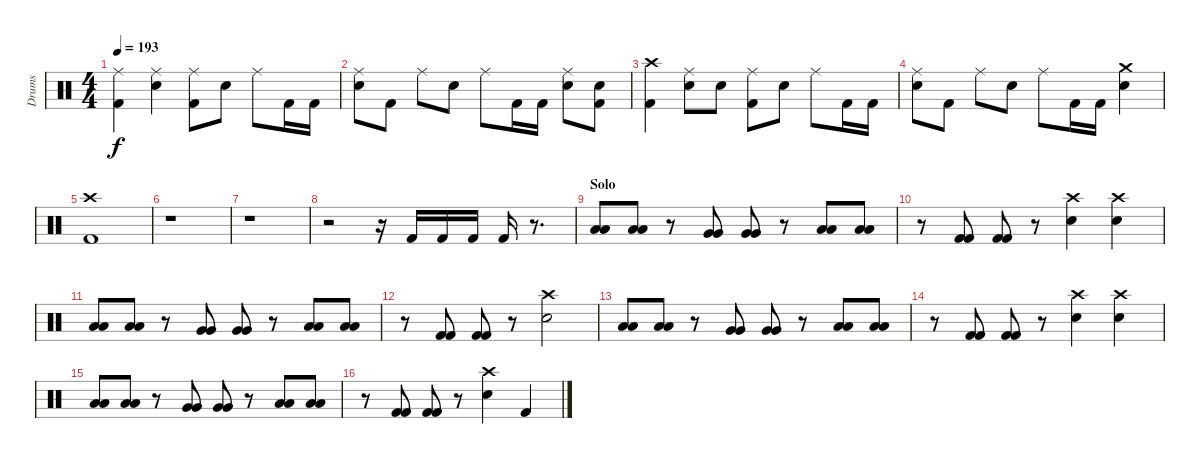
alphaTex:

\track ("Drums" "Drums") {instrument percussion}
\staff {score}
\articulation defaults
\ts (4 4)
\tempo 193
\clef neutral
\ks c
("Ride (middle)" "Kick (hit) 2").4{dy f} ("Ride (middle)" "Snare (hit) 2").4 ("Ride (middle)" "Kick (hit) 2").8 "Snare (hit) 2".8 "Ride (middle)".8 "Kick (hit) 2".16 "Kick (hit) 2".16 |
("Ride (middle)" "Snare (hit) 2").8 "Kick (hit) 2".8 "Ride (middle)".8 "Snare (hit) 2".8 "Ride (middle)".8 "Kick (hit) 2".16 "Kick (hit) 2".16 ("Ride (middle)" "Snare (hit) 2").8 ("Snare (hit) 2" "Kick (hit) 2").8 |
("Crash high (hit)" "Kick (hit) 2").4 ("Ride (middle)" "Snare (hit) 2").8 "Snare (hit) 2".8 ("Ride (middle)" "Kick (hit) 2").8 "Snare (hit) 2".8 "Ride (middle)".8 "Kick (hit) 2".16 "Kick (hit) 2".16 |
("Ride (middle)" "Snare (hit) 2").8 "Kick (hit) 2".8 "Ride (middle)".8 "Snare (hit) 2".8 "Ride (middle)".8 "Kick (hit) 2".16 "Kick (hit) 2".16 ("Crash medium (hit)" "Snare (hit) 2").4 |
("Crash high (hit)" "Kick (hit) 2").1 |
r.1 |
r.1 |
r.2 r.16 "Kick (hit) 2".16 "Kick (hit) 2".16 "Kick (hit) 2".16 "Kick (hit) 2".16 r.8{d} |
\section ("" "Solo")
("Low Tom (hit)" "Low Tom (hit)").8 ("Low Tom (hit)" "Low Tom (hit)").8 r.8 ("Very Low Tom (hit)" "Very Low Tom (hit)").8 ("Very Low Tom (hit)" "Very Low Tom (hit)").8 r.8 ("Low Floor Tom (hit)" "Low Floor Tom (hit)").8 ("Low Floor Tom (hit)" "Low Floor Tom (hit)").8 |
r.8 ("Kick (hit) 2" "Kick (hit) 2").8 ("Kick (hit) 2" "Kick (hit) 2").8 r.8 ("Crash high (hit)" "Snare (hit) 2").4 ("Crash high (hit)" "Snare (hit) 2").4 |
("Low Tom (hit)" "Low Tom (hit)").8 ("Low Tom (hit)" "Low Tom (hit)").8 r.8 ("Very Low Tom (hit)" "Very Low Tom (hit)").8 ("Very Low Tom (hit)" "Very Low Tom (hit)").8 r.8 ("Low Floor Tom (hit)" "Low Floor Tom (hit)").8 ("Low Floor Tom (hit)" "Low Floor Tom (hit)").8 |
r.8 ("Kick (hit) 2" "Kick (hit) 2").8 ("Kick (hit) 2" "Kick (hit) 2").8 r.8 ("Crash high (hit)" "Snare (hit) 2").2 |
("Low Tom (hit)" "Low Tom (hit)").8 ("Low Tom (hit)" "Low Tom (hit)").8 r.8 ("Very Low Tom (hit)" "Very Low Tom (hit)").8 ("Very Low Tom (hit)" "Very Low Tom (hit)").8 r.8 ("Low Floor Tom (hit)" "Low Floor Tom (hit)").8 ("Low Floor Tom (hit)" "Low Floor Tom (hit)").8 |
r.8 ("Kick (hit) 2" "Kick (hit) 2").8 ("Kick (hit) 2" "Kick (hit) 2").8 r.8 ("Crash high (hit)" "Snare (hit) 2").4 ("Crash high (hit)" "Snare (hit) 2").4 |
("Low Tom (hit)" "Low Tom (hit)").8 ("Low Tom (hit)" "Low Tom (hit)").8 r.8 ("Very Low Tom (hit)" "Very Low Tom (hit)").8 ("Very Low Tom (hit)" "Very Low Tom (hit)").8 r.8 ("Low Floor Tom (hit)" "Low Floor Tom (hit)").8 ("Low Floor Tom (hit)" "Low Floor Tom (hit)").8 |
r.8 ("Kick (hit) 2" "Kick (hit) 2").8 ("Kick (hit) 2" "Kick (hit) 2").8 r.8 ("Crash high (hit)" "Snare (hit) 2").4 "Kick (hit) 2".4
